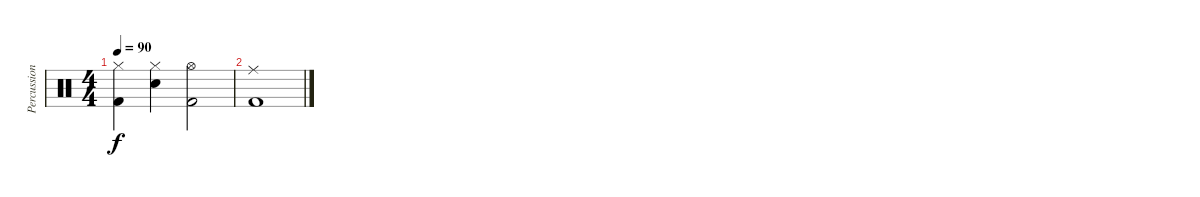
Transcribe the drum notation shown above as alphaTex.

\track ("Percussion" "Percussion") {instrument percussion}
\staff {score}
\articulation defaults
\ts (4 4)
\tempo 90
\clef neutral
\ks c
("Hi-Hat (closed)" "Kick (hit) 2").4{dy f} ("Hi-Hat (closed)" "Snare (hit) 2").4 ("Hi-Hat (open)" "Kick (hit) 2").2 |
("Ride (middle)" "Kick (hit) 2").1
